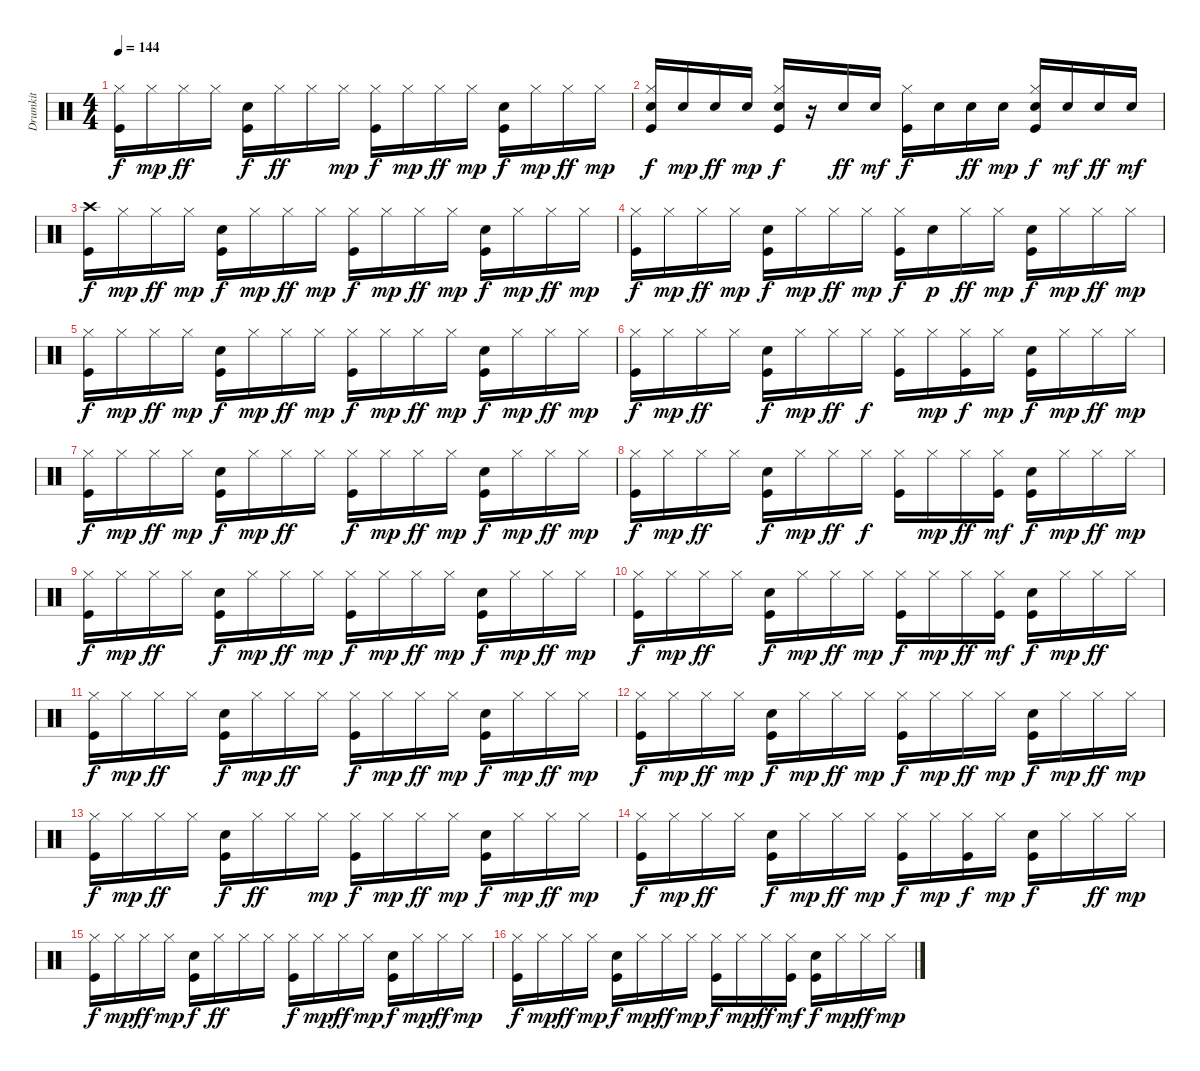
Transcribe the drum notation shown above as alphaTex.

\track ("Drumkit" "Drumkit") {instrument percussion}
\staff {score}
\articulation defaults
\ts (4 4)
\tempo 144
\clef neutral
\ks c
("Kick (hit)" "Hi-Hat (closed)").16{dy f} "Hi-Hat (closed)".16{dy mp} "Hi-Hat (closed)".16{dy ff} "Hi-Hat (closed)".16 ("Kick (hit)" "Snare (hit) 2").16{dy f} "Hi-Hat (closed)".16{dy ff} "Hi-Hat (closed)".16 "Hi-Hat (closed)".16{dy mp} ("Kick (hit)" "Hi-Hat (closed)").16{dy f} "Hi-Hat (closed)".16{dy mp} "Hi-Hat (closed)".16{dy ff} "Hi-Hat (closed)".16{dy mp} ("Kick (hit)" "Snare (hit) 2").16{dy f} "Hi-Hat (closed)".16{dy mp} "Hi-Hat (closed)".16{dy ff} "Hi-Hat (closed)".16{dy mp} |
("Kick (hit)" "Snare (hit) 2" "Hi-Hat (closed)").16{dy f} "Snare (hit) 2".16{dy mp} "Snare (hit) 2".16{dy ff} "Snare (hit) 2".16{dy mp} ("Kick (hit)" "Snare (hit) 2" "Hi-Hat (closed)").16{dy f} r.16 "Snare (hit) 2".16{dy ff} "Snare (hit) 2".16{dy mf} ("Kick (hit)" "Hi-Hat (closed)").16{dy f} "Snare (hit) 2".16 "Snare (hit) 2".16{dy ff} "Snare (hit) 2".16{dy mp} ("Kick (hit)" "Snare (hit) 2" "Hi-Hat (closed)").16{dy f} "Snare (hit) 2".16{dy mf} "Snare (hit) 2".16{dy ff} "Snare (hit) 2".16{dy mf} |
("Kick (hit)" "Crash high (hit)").16{dy f} "Hi-Hat (closed)".16{dy mp} "Hi-Hat (closed)".16{dy ff} "Hi-Hat (closed)".16{dy mp} ("Kick (hit)" "Snare (hit) 2").16{dy f} "Hi-Hat (closed)".16{dy mp} "Hi-Hat (closed)".16{dy ff} "Hi-Hat (closed)".16{dy mp} ("Kick (hit)" "Hi-Hat (closed)").16{dy f} "Hi-Hat (closed)".16{dy mp} "Hi-Hat (closed)".16{dy ff} "Hi-Hat (closed)".16{dy mp} ("Kick (hit)" "Snare (hit) 2").16{dy f} "Hi-Hat (closed)".16{dy mp} "Hi-Hat (closed)".16{dy ff} "Hi-Hat (closed)".16{dy mp} |
("Kick (hit)" "Hi-Hat (closed)").16{dy f} "Hi-Hat (closed)".16{dy mp} "Hi-Hat (closed)".16{dy ff} "Hi-Hat (closed)".16{dy mp} ("Kick (hit)" "Snare (hit) 2").16{dy f} "Hi-Hat (closed)".16{dy mp} "Hi-Hat (closed)".16{dy ff} "Hi-Hat (closed)".16{dy mp} ("Kick (hit)" "Hi-Hat (closed)").16{dy f} "Snare (hit) 2".16{dy p} "Hi-Hat (closed)".16{dy ff} "Hi-Hat (closed)".16{dy mp} ("Kick (hit)" "Snare (hit) 2").16{dy f} "Hi-Hat (closed)".16{dy mp} "Hi-Hat (closed)".16{dy ff} "Hi-Hat (closed)".16{dy mp} |
("Kick (hit)" "Hi-Hat (closed)").16{dy f} "Hi-Hat (closed)".16{dy mp} "Hi-Hat (closed)".16{dy ff} "Hi-Hat (closed)".16{dy mp} ("Kick (hit)" "Snare (hit) 2").16{dy f} "Hi-Hat (closed)".16{dy mp} "Hi-Hat (closed)".16{dy ff} "Hi-Hat (closed)".16{dy mp} ("Kick (hit)" "Hi-Hat (closed)").16{dy f} "Hi-Hat (closed)".16{dy mp} "Hi-Hat (closed)".16{dy ff} "Hi-Hat (closed)".16{dy mp} ("Kick (hit)" "Snare (hit) 2").16{dy f} "Hi-Hat (closed)".16{dy mp} "Hi-Hat (closed)".16{dy ff} "Hi-Hat (closed)".16{dy mp} |
("Kick (hit)" "Hi-Hat (closed)").16{dy f} "Hi-Hat (closed)".16{dy mp} "Hi-Hat (closed)".16{dy ff} "Hi-Hat (closed)".16 ("Kick (hit)" "Snare (hit) 2").16{dy f} "Hi-Hat (closed)".16{dy mp} "Hi-Hat (closed)".16{dy ff} "Hi-Hat (closed)".16{dy f} ("Kick (hit)" "Hi-Hat (closed)").16 "Hi-Hat (closed)".16{dy mp} ("Kick (hit)" "Hi-Hat (closed)").16{dy f} "Hi-Hat (closed)".16{dy mp} ("Kick (hit)" "Snare (hit) 2").16{dy f} "Hi-Hat (closed)".16{dy mp} "Hi-Hat (closed)".16{dy ff} "Hi-Hat (closed)".16{dy mp} |
("Kick (hit)" "Hi-Hat (closed)").16{dy f} "Hi-Hat (closed)".16{dy mp} "Hi-Hat (closed)".16{dy ff} "Hi-Hat (closed)".16{dy mp} ("Kick (hit)" "Snare (hit) 2").16{dy f} "Hi-Hat (closed)".16{dy mp} "Hi-Hat (closed)".16{dy ff} "Hi-Hat (closed)".16 ("Kick (hit)" "Hi-Hat (closed)").16{dy f} "Hi-Hat (closed)".16{dy mp} "Hi-Hat (closed)".16{dy ff} "Hi-Hat (closed)".16{dy mp} ("Kick (hit)" "Snare (hit) 2").16{dy f} "Hi-Hat (closed)".16{dy mp} "Hi-Hat (closed)".16{dy ff} "Hi-Hat (closed)".16{dy mp} |
("Kick (hit)" "Hi-Hat (closed)").16{dy f} "Hi-Hat (closed)".16{dy mp} "Hi-Hat (closed)".16{dy ff} "Hi-Hat (closed)".16 ("Kick (hit)" "Snare (hit) 2").16{dy f} "Hi-Hat (closed)".16{dy mp} "Hi-Hat (closed)".16{dy ff} "Hi-Hat (closed)".16{dy f} ("Kick (hit)" "Hi-Hat (closed)").16 "Hi-Hat (closed)".16{dy mp} "Hi-Hat (closed)".16{dy ff} ("Kick (hit)" "Hi-Hat (closed)").16{dy mf} ("Kick (hit)" "Snare (hit) 2").16{dy f} "Hi-Hat (closed)".16{dy mp} "Hi-Hat (closed)".16{dy ff} "Hi-Hat (closed)".16{dy mp} |
("Kick (hit)" "Hi-Hat (closed)").16{dy f} "Hi-Hat (closed)".16{dy mp} "Hi-Hat (closed)".16{dy ff} "Hi-Hat (closed)".16 ("Kick (hit)" "Snare (hit) 2").16{dy f} "Hi-Hat (closed)".16{dy mp} "Hi-Hat (closed)".16{dy ff} "Hi-Hat (closed)".16{dy mp} ("Kick (hit)" "Hi-Hat (closed)").16{dy f} "Hi-Hat (closed)".16{dy mp} "Hi-Hat (closed)".16{dy ff} "Hi-Hat (closed)".16{dy mp} ("Kick (hit)" "Snare (hit) 2").16{dy f} "Hi-Hat (closed)".16{dy mp} "Hi-Hat (closed)".16{dy ff} "Hi-Hat (closed)".16{dy mp} |
("Kick (hit)" "Hi-Hat (closed)").16{dy f} "Hi-Hat (closed)".16{dy mp} "Hi-Hat (closed)".16{dy ff} "Hi-Hat (closed)".16 ("Kick (hit)" "Snare (hit) 2").16{dy f} "Hi-Hat (closed)".16{dy mp} "Hi-Hat (closed)".16{dy ff} "Hi-Hat (closed)".16{dy mp} ("Kick (hit)" "Hi-Hat (closed)").16{dy f} "Hi-Hat (closed)".16{dy mp} "Hi-Hat (closed)".16{dy ff} ("Kick (hit)" "Hi-Hat (closed)").16{dy mf} ("Kick (hit)" "Snare (hit) 2").16{dy f} "Hi-Hat (closed)".16{dy mp} "Hi-Hat (closed)".16{dy ff} "Hi-Hat (closed)".16 |
("Kick (hit)" "Hi-Hat (closed)").16{dy f} "Hi-Hat (closed)".16{dy mp} "Hi-Hat (closed)".16{dy ff} "Hi-Hat (closed)".16 ("Kick (hit)" "Snare (hit) 2").16{dy f} "Hi-Hat (closed)".16{dy mp} "Hi-Hat (closed)".16{dy ff} "Hi-Hat (closed)".16 ("Kick (hit)" "Hi-Hat (closed)").16{dy f} "Hi-Hat (closed)".16{dy mp} "Hi-Hat (closed)".16{dy ff} "Hi-Hat (closed)".16{dy mp} ("Kick (hit)" "Snare (hit) 2").16{dy f} "Hi-Hat (closed)".16{dy mp} "Hi-Hat (closed)".16{dy ff} "Hi-Hat (closed)".16{dy mp} |
("Kick (hit)" "Hi-Hat (closed)").16{dy f} "Hi-Hat (closed)".16{dy mp} "Hi-Hat (closed)".16{dy ff} "Hi-Hat (closed)".16{dy mp} ("Kick (hit)" "Snare (hit) 2").16{dy f} "Hi-Hat (closed)".16{dy mp} "Hi-Hat (closed)".16{dy ff} "Hi-Hat (closed)".16{dy mp} ("Kick (hit)" "Hi-Hat (closed)").16{dy f} "Hi-Hat (closed)".16{dy mp} "Hi-Hat (closed)".16{dy ff} "Hi-Hat (closed)".16{dy mp} ("Kick (hit)" "Snare (hit) 2").16{dy f} "Hi-Hat (closed)".16{dy mp} "Hi-Hat (closed)".16{dy ff} "Hi-Hat (closed)".16{dy mp} |
("Kick (hit)" "Hi-Hat (closed)").16{dy f} "Hi-Hat (closed)".16{dy mp} "Hi-Hat (closed)".16{dy ff} "Hi-Hat (closed)".16 ("Kick (hit)" "Snare (hit) 2").16{dy f} "Hi-Hat (closed)".16{dy ff} "Hi-Hat (closed)".16 "Hi-Hat (closed)".16{dy mp} ("Kick (hit)" "Hi-Hat (closed)").16{dy f} "Hi-Hat (closed)".16{dy mp} "Hi-Hat (closed)".16{dy ff} "Hi-Hat (closed)".16{dy mp} ("Kick (hit)" "Snare (hit) 2").16{dy f} "Hi-Hat (closed)".16{dy mp} "Hi-Hat (closed)".16{dy ff} "Hi-Hat (closed)".16{dy mp} |
("Kick (hit)" "Hi-Hat (closed)").16{dy f} "Hi-Hat (closed)".16{dy mp} "Hi-Hat (closed)".16{dy ff} "Hi-Hat (closed)".16 ("Kick (hit)" "Snare (hit) 2").16{dy f} "Hi-Hat (closed)".16{dy mp} "Hi-Hat (closed)".16{dy ff} "Hi-Hat (closed)".16{dy mp} ("Kick (hit)" "Hi-Hat (closed)").16{dy f} "Hi-Hat (closed)".16{dy mp} ("Kick (hit)" "Hi-Hat (closed)").16{dy f} "Hi-Hat (closed)".16{dy mp} ("Kick (hit)" "Snare (hit) 2").16{dy f} "Hi-Hat (closed)".16 "Hi-Hat (closed)".16{dy ff} "Hi-Hat (closed)".16{dy mp} |
("Kick (hit)" "Hi-Hat (closed)").16{dy f} "Hi-Hat (closed)".16{dy mp} "Hi-Hat (closed)".16{dy ff} "Hi-Hat (closed)".16{dy mp} ("Kick (hit)" "Snare (hit) 2").16{dy f} "Hi-Hat (closed)".16{dy ff} "Hi-Hat (closed)".16 "Hi-Hat (closed)".16 ("Kick (hit)" "Hi-Hat (closed)").16{dy f} "Hi-Hat (closed)".16{dy mp} "Hi-Hat (closed)".16{dy ff} "Hi-Hat (closed)".16{dy mp} ("Kick (hit)" "Snare (hit) 2").16{dy f} "Hi-Hat (closed)".16{dy mp} "Hi-Hat (closed)".16{dy ff} "Hi-Hat (closed)".16{dy mp} |
("Kick (hit)" "Hi-Hat (closed)").16{dy f} "Hi-Hat (closed)".16{dy mp} "Hi-Hat (closed)".16{dy ff} "Hi-Hat (closed)".16{dy mp} ("Kick (hit)" "Snare (hit) 2").16{dy f} "Hi-Hat (closed)".16{dy mp} "Hi-Hat (closed)".16{dy ff} "Hi-Hat (closed)".16{dy mp} ("Kick (hit)" "Hi-Hat (closed)").16{dy f} "Hi-Hat (closed)".16{dy mp} "Hi-Hat (closed)".16{dy ff} ("Kick (hit)" "Hi-Hat (closed)").16{dy mf} ("Kick (hit)" "Snare (hit) 2").16{dy f} "Hi-Hat (closed)".16{dy mp} "Hi-Hat (closed)".16{dy ff} "Hi-Hat (closed)".16{dy mp}
